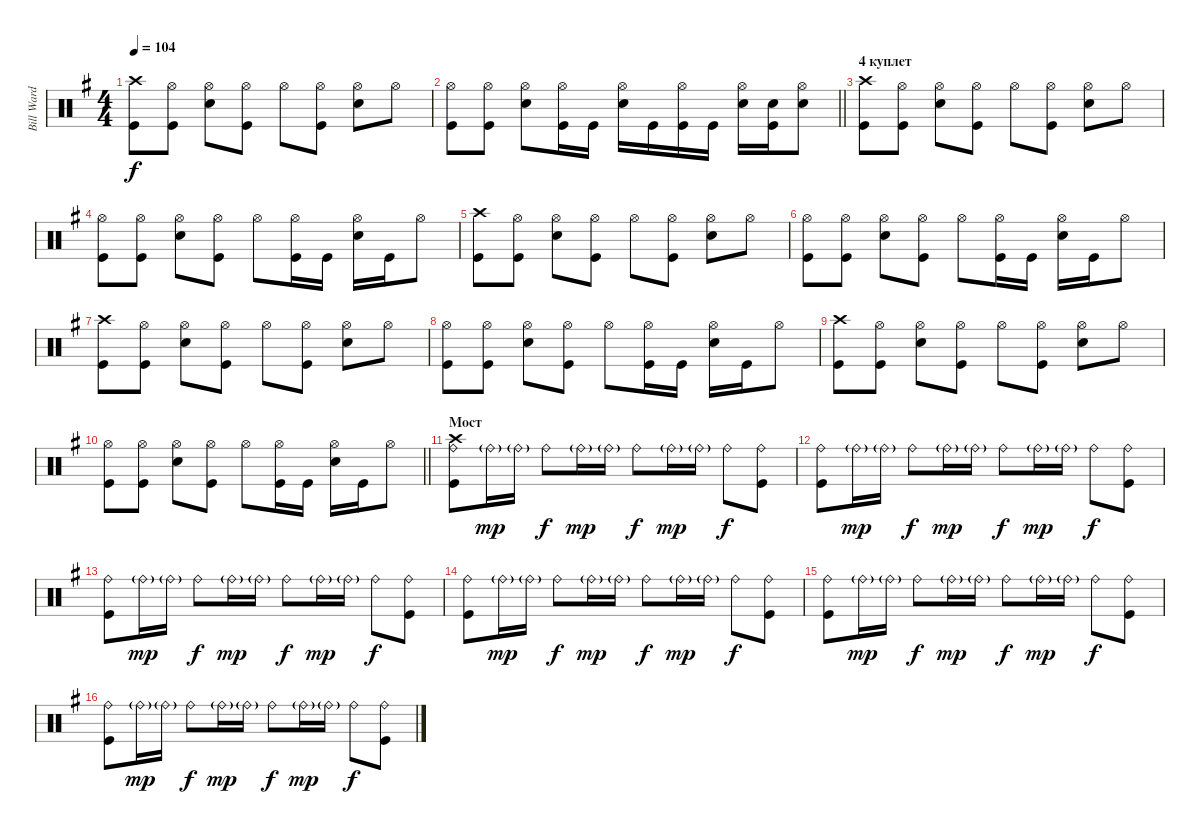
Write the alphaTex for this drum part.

\track ("Bill Ward" "Bill Ward") {instrument percussion}
\staff {score}
\articulation defaults
\ts (4 4)
\tempo 104
\clef neutral
\ks g
("Crash high (hit)" "Kick (hit)").8{dy f} ("Kick (hit)" "Hi-Hat (open)").8 ("Snare (hit) 2" "Hi-Hat (open)").8 ("Kick (hit)" "Hi-Hat (open)").8 "Hi-Hat (open)".8 ("Kick (hit)" "Hi-Hat (open)").8 ("Hi-Hat (open)" "Snare (hit) 2").8 "Hi-Hat (open)".8 |
\barLineRight lightlight
("Kick (hit)" "Hi-Hat (open)").8 ("Kick (hit)" "Hi-Hat (open)").8 ("Snare (hit) 2" "Hi-Hat (open)").8 ("Kick (hit)" "Hi-Hat (open)").16 "Kick (hit)".16 ("Hi-Hat (open)" "Snare (hit) 2").16 "Kick (hit)".16 ("Kick (hit)" "Hi-Hat (open)").16 "Kick (hit)".16 ("Hi-Hat (open)" "Snare (hit) 2").16 ("Kick (hit)" "Snare (hit) 2").16 ("Hi-Hat (open)" "Snare (hit) 2").8 |
\section ("" "4 куплет")
("Crash high (hit)" "Kick (hit)").8 ("Kick (hit)" "Hi-Hat (open)").8 ("Snare (hit) 2" "Hi-Hat (open)").8 ("Kick (hit)" "Hi-Hat (open)").8 "Hi-Hat (open)".8 ("Kick (hit)" "Hi-Hat (open)").8 ("Hi-Hat (open)" "Snare (hit) 2").8 "Hi-Hat (open)".8 |
("Kick (hit)" "Hi-Hat (open)").8 ("Kick (hit)" "Hi-Hat (open)").8 ("Snare (hit) 2" "Hi-Hat (open)").8 ("Kick (hit)" "Hi-Hat (open)").8 "Hi-Hat (open)".8 ("Kick (hit)" "Hi-Hat (open)").16 "Kick (hit)".16 ("Snare (hit) 2" "Hi-Hat (open)").16 "Kick (hit)".16 "Hi-Hat (open)".8 |
("Crash high (hit)" "Kick (hit)").8 ("Kick (hit)" "Hi-Hat (open)").8 ("Snare (hit) 2" "Hi-Hat (open)").8 ("Kick (hit)" "Hi-Hat (open)").8 "Hi-Hat (open)".8 ("Kick (hit)" "Hi-Hat (open)").8 ("Hi-Hat (open)" "Snare (hit) 2").8 "Hi-Hat (open)".8 |
("Kick (hit)" "Hi-Hat (open)").8 ("Kick (hit)" "Hi-Hat (open)").8 ("Snare (hit) 2" "Hi-Hat (open)").8 ("Kick (hit)" "Hi-Hat (open)").8 "Hi-Hat (open)".8 ("Kick (hit)" "Hi-Hat (open)").16 "Kick (hit)".16 ("Snare (hit) 2" "Hi-Hat (open)").16 "Kick (hit)".16 "Hi-Hat (open)".8 |
("Crash high (hit)" "Kick (hit)").8 ("Kick (hit)" "Hi-Hat (open)").8 ("Snare (hit) 2" "Hi-Hat (open)").8 ("Kick (hit)" "Hi-Hat (open)").8 "Hi-Hat (open)".8 ("Kick (hit)" "Hi-Hat (open)").8 ("Hi-Hat (open)" "Snare (hit) 2").8 "Hi-Hat (open)".8 |
("Kick (hit)" "Hi-Hat (open)").8 ("Kick (hit)" "Hi-Hat (open)").8 ("Snare (hit) 2" "Hi-Hat (open)").8 ("Kick (hit)" "Hi-Hat (open)").8 "Hi-Hat (open)".8 ("Kick (hit)" "Hi-Hat (open)").16 "Kick (hit)".16 ("Snare (hit) 2" "Hi-Hat (open)").16 "Kick (hit)".16 "Hi-Hat (open)".8 |
("Crash high (hit)" "Kick (hit)").8 ("Kick (hit)" "Hi-Hat (open)").8 ("Snare (hit) 2" "Hi-Hat (open)").8 ("Kick (hit)" "Hi-Hat (open)").8 "Hi-Hat (open)".8 ("Kick (hit)" "Hi-Hat (open)").8 ("Hi-Hat (open)" "Snare (hit) 2").8 "Hi-Hat (open)".8 |
\barLineRight lightlight
("Kick (hit)" "Hi-Hat (open)").8 ("Kick (hit)" "Hi-Hat (open)").8 ("Snare (hit) 2" "Hi-Hat (open)").8 ("Kick (hit)" "Hi-Hat (open)").8 "Hi-Hat (open)".8 ("Kick (hit)" "Hi-Hat (open)").16 "Kick (hit)".16 ("Snare (hit) 2" "Hi-Hat (open)").16 "Kick (hit)".16 "Hi-Hat (open)".8 |
\section ("" "Мост")
("Ride (bell)" "Kick (hit)" "Crash high (hit)").8 "Ride (bell)"{g}.16{dy mp} "Ride (bell)"{g}.16 "Ride (bell)".8{dy f} "Ride (bell)"{g}.16{dy mp} "Ride (bell)"{g}.16 "Ride (bell)".8{dy f} "Ride (bell)"{g}.16{dy mp} "Ride (bell)"{g}.16 "Ride (bell)".8{dy f} ("Ride (bell)" "Kick (hit)").8 |
("Ride (bell)" "Kick (hit)").8 "Ride (bell)"{g}.16{dy mp} "Ride (bell)"{g}.16 "Ride (bell)".8{dy f} "Ride (bell)"{g}.16{dy mp} "Ride (bell)"{g}.16 "Ride (bell)".8{dy f} "Ride (bell)"{g}.16{dy mp} "Ride (bell)"{g}.16 "Ride (bell)".8{dy f} ("Ride (bell)" "Kick (hit)").8 |
("Ride (bell)" "Kick (hit)").8 "Ride (bell)"{g}.16{dy mp} "Ride (bell)"{g}.16 "Ride (bell)".8{dy f} "Ride (bell)"{g}.16{dy mp} "Ride (bell)"{g}.16 "Ride (bell)".8{dy f} "Ride (bell)"{g}.16{dy mp} "Ride (bell)"{g}.16 "Ride (bell)".8{dy f} ("Ride (bell)" "Kick (hit)").8 |
("Ride (bell)" "Kick (hit)").8 "Ride (bell)"{g}.16{dy mp} "Ride (bell)"{g}.16 "Ride (bell)".8{dy f} "Ride (bell)"{g}.16{dy mp} "Ride (bell)"{g}.16 "Ride (bell)".8{dy f} "Ride (bell)"{g}.16{dy mp} "Ride (bell)"{g}.16 "Ride (bell)".8{dy f} ("Ride (bell)" "Kick (hit)").8 |
("Ride (bell)" "Kick (hit)").8 "Ride (bell)"{g}.16{dy mp} "Ride (bell)"{g}.16 "Ride (bell)".8{dy f} "Ride (bell)"{g}.16{dy mp} "Ride (bell)"{g}.16 "Ride (bell)".8{dy f} "Ride (bell)"{g}.16{dy mp} "Ride (bell)"{g}.16 "Ride (bell)".8{dy f} ("Ride (bell)" "Kick (hit)").8 |
("Ride (bell)" "Kick (hit)").8 "Ride (bell)"{g}.16{dy mp} "Ride (bell)"{g}.16 "Ride (bell)".8{dy f} "Ride (bell)"{g}.16{dy mp} "Ride (bell)"{g}.16 "Ride (bell)".8{dy f} "Ride (bell)"{g}.16{dy mp} "Ride (bell)"{g}.16 "Ride (bell)".8{dy f} ("Ride (bell)" "Kick (hit)").8
